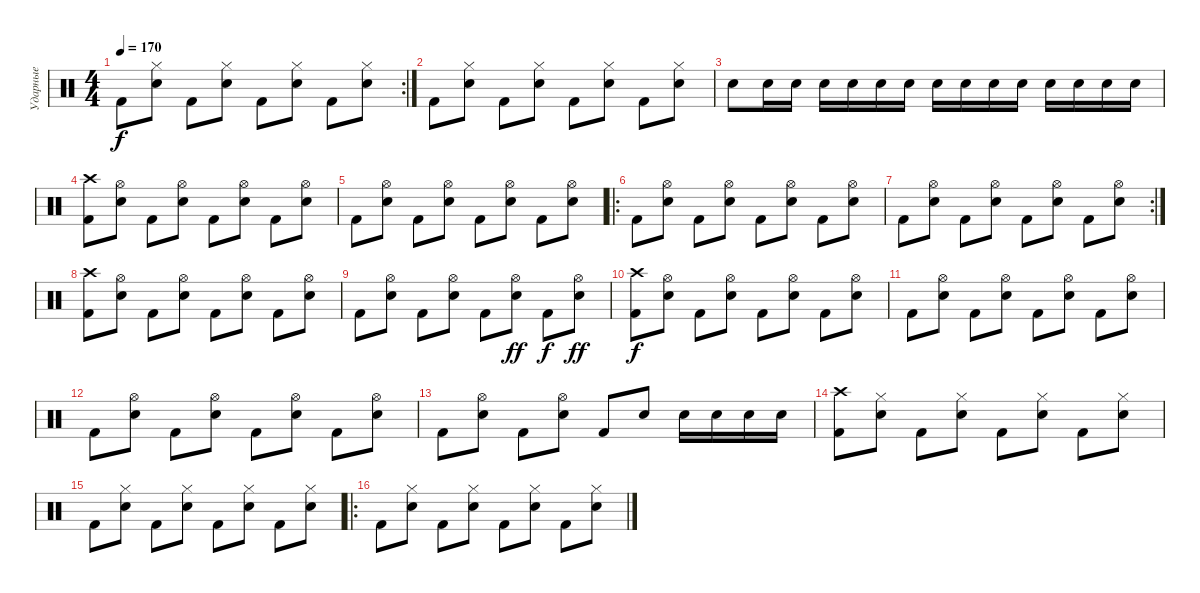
\track ("Ударные" "Ударные") {instrument percussion}
\staff {score}
\articulation defaults
\rc 2
\ts (4 4)
\tempo 170
\clef neutral
\ks c "Kick (hit) 2".8{dy f}
("Hi-Hat (closed)" "Electric Snare (hit)").8 "Kick (hit) 2".8 ("Hi-Hat (closed)" "Electric Snare (hit)").8 "Kick (hit) 2".8 ("Hi-Hat (closed)" "Electric Snare (hit)").8 "Kick (hit) 2".8 ("Hi-Hat (closed)" "Electric Snare (hit)").8 |
"Kick (hit) 2".8 ("Hi-Hat (closed)" "Electric Snare (hit)").8 "Kick (hit) 2".8 ("Hi-Hat (closed)" "Electric Snare (hit)").8 "Kick (hit) 2".8 ("Hi-Hat (closed)" "Electric Snare (hit)").8 "Kick (hit) 2".8 ("Hi-Hat (closed)" "Electric Snare (hit)").8 |
"Electric Snare (hit)".8 "Electric Snare (hit)".16 "Electric Snare (hit)".16 "Electric Snare (hit)".16 "Electric Snare (hit)".16 "Electric Snare (hit)".16 "Electric Snare (hit)".16 "Snare (hit) 2".16 "Snare (hit) 2".16 "Snare (hit) 2".16 "Snare (hit) 2".16 "Snare (hit) 2".16 "Snare (hit) 2".16 "Snare (hit) 2".16 "Snare (hit) 2".16 |
("Kick (hit) 2" "Crash high (hit)").8 ("Hi-Hat (open)" "Electric Snare (hit)").8 "Kick (hit) 2".8 ("Hi-Hat (open)" "Electric Snare (hit)").8 "Kick (hit) 2".8 ("Hi-Hat (open)" "Electric Snare (hit)").8 "Kick (hit) 2".8 ("Hi-Hat (open)" "Electric Snare (hit)").8 |
"Kick (hit) 2".8 ("Hi-Hat (open)" "Electric Snare (hit)").8 "Kick (hit) 2".8 ("Hi-Hat (open)" "Electric Snare (hit)").8 "Kick (hit) 2".8 ("Hi-Hat (open)" "Electric Snare (hit)").8 "Kick (hit) 2".8 ("Hi-Hat (open)" "Electric Snare (hit)").8 |
\ro "Kick (hit) 2".8
("Hi-Hat (open)" "Electric Snare (hit)").8 "Kick (hit) 2".8 ("Hi-Hat (open)" "Electric Snare (hit)").8 "Kick (hit) 2".8 ("Hi-Hat (open)" "Electric Snare (hit)").8 "Kick (hit) 2".8 ("Hi-Hat (open)" "Electric Snare (hit)").8 |
\rc 2 "Kick (hit) 2".8
("Hi-Hat (open)" "Electric Snare (hit)").8 "Kick (hit) 2".8 ("Hi-Hat (open)" "Electric Snare (hit)").8 "Kick (hit) 2".8 ("Hi-Hat (open)" "Electric Snare (hit)").8 "Kick (hit) 2".8 ("Hi-Hat (open)" "Electric Snare (hit)").8 |
("Kick (hit) 2" "Crash high (hit)").8 ("Hi-Hat (open)" "Electric Snare (hit)").8 "Kick (hit) 2".8 ("Hi-Hat (open)" "Electric Snare (hit)").8 "Kick (hit) 2".8 ("Hi-Hat (open)" "Electric Snare (hit)").8 "Kick (hit) 2".8 ("Hi-Hat (open)" "Electric Snare (hit)").8 |
"Kick (hit) 2".8 ("Hi-Hat (open)" "Electric Snare (hit)").8 "Kick (hit) 2".8 ("Hi-Hat (open)" "Electric Snare (hit)").8 "Kick (hit) 2".8 ("Hi-Hat (open)" "Electric Snare (hit)").8{dy ff} "Kick (hit) 2".8{dy f} ("Hi-Hat (open)" "Electric Snare (hit)").8{dy ff} |
("Kick (hit) 2" "Crash high (hit)").8{dy f} ("Hi-Hat (open)" "Electric Snare (hit)").8 "Kick (hit) 2".8 ("Hi-Hat (open)" "Electric Snare (hit)").8 "Kick (hit) 2".8 ("Hi-Hat (open)" "Electric Snare (hit)").8 "Kick (hit) 2".8 ("Hi-Hat (open)" "Electric Snare (hit)").8 |
"Kick (hit) 2".8 ("Hi-Hat (open)" "Electric Snare (hit)").8 "Kick (hit) 2".8 ("Hi-Hat (open)" "Electric Snare (hit)").8 "Kick (hit) 2".8 ("Hi-Hat (open)" "Electric Snare (hit)").8 "Kick (hit) 2".8 ("Hi-Hat (open)" "Electric Snare (hit)").8 |
"Kick (hit) 2".8 ("Hi-Hat (open)" "Electric Snare (hit)").8 "Kick (hit) 2".8 ("Hi-Hat (open)" "Electric Snare (hit)").8 "Kick (hit) 2".8 ("Hi-Hat (open)" "Electric Snare (hit)").8 "Kick (hit) 2".8 ("Hi-Hat (open)" "Electric Snare (hit)").8 |
"Kick (hit) 2".8 ("Hi-Hat (open)" "Electric Snare (hit)").8 "Kick (hit) 2".8 ("Hi-Hat (open)" "Electric Snare (hit)").8 "Kick (hit) 2".8 "Electric Snare (hit)".8 "Electric Snare (hit)".16 "Electric Snare (hit)".16 "Electric Snare (hit)".16 "Electric Snare (hit)".16 |
("Kick (hit) 2" "Crash high (hit)").8 ("Hi-Hat (closed)" "Electric Snare (hit)").8 "Kick (hit) 2".8 ("Hi-Hat (closed)" "Electric Snare (hit)").8 "Kick (hit) 2".8 ("Hi-Hat (closed)" "Electric Snare (hit)").8 "Kick (hit) 2".8 ("Hi-Hat (closed)" "Electric Snare (hit)").8 |
"Kick (hit) 2".8 ("Hi-Hat (closed)" "Electric Snare (hit)").8 "Kick (hit) 2".8 ("Hi-Hat (closed)" "Electric Snare (hit)").8 "Kick (hit) 2".8 ("Hi-Hat (closed)" "Electric Snare (hit)").8 "Kick (hit) 2".8 ("Hi-Hat (closed)" "Electric Snare (hit)").8 |
\ro "Kick (hit) 2".8
("Hi-Hat (closed)" "Electric Snare (hit)").8 "Kick (hit) 2".8 ("Hi-Hat (closed)" "Electric Snare (hit)").8 "Kick (hit) 2".8 ("Hi-Hat (closed)" "Electric Snare (hit)").8 "Kick (hit) 2".8 ("Hi-Hat (closed)" "Electric Snare (hit)").8
